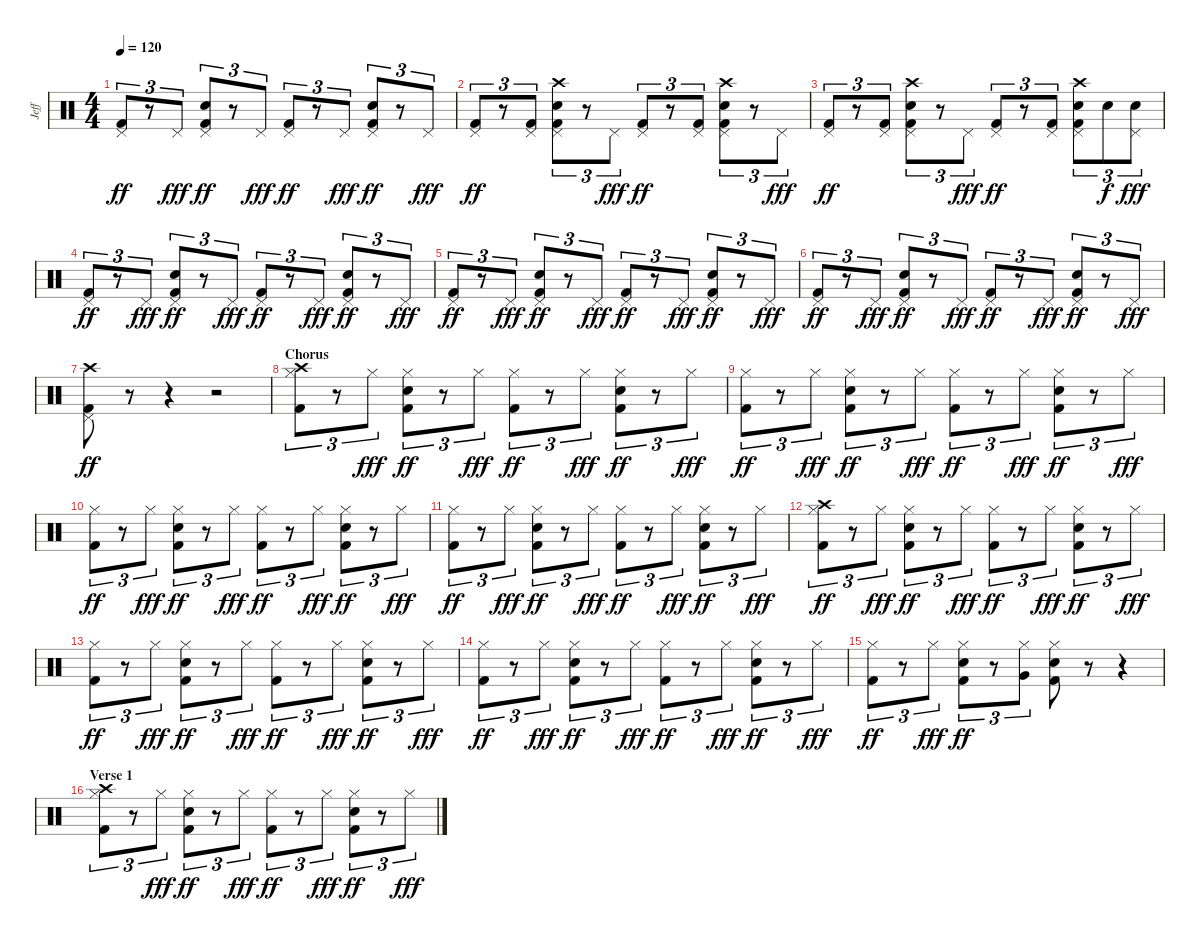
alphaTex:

\track ("Jeff" "Jeff") {instrument percussion}
\staff {score}
\articulation defaults
\ts (4 4)
\tempo 120
\clef neutral
\ks c
("Pedal Hi-Hat (hit)" "Kick (hit) 2").8{tu (3 2) dy ff} r.8{tu (3 2)} "Pedal Hi-Hat (hit)".8{tu (3 2) dy fff} ("Pedal Hi-Hat (hit)" "Snare (hit) 2" "Kick (hit) 2").8{tu (3 2) dy ff} r.8{tu (3 2)} "Pedal Hi-Hat (hit)".8{tu (3 2) dy fff} ("Pedal Hi-Hat (hit)" "Kick (hit) 2").8{tu (3 2) dy ff} r.8{tu (3 2)} "Pedal Hi-Hat (hit)".8{tu (3 2) dy fff} ("Pedal Hi-Hat (hit)" "Snare (hit) 2" "Kick (hit) 2").8{tu (3 2) dy ff} r.8{tu (3 2)} "Pedal Hi-Hat (hit)".8{tu (3 2) dy fff} |
("Pedal Hi-Hat (hit)" "Kick (hit) 2").8{tu (3 2) dy ff} r.8{tu (3 2)} ("Pedal Hi-Hat (hit)" "Kick (hit) 2").8{tu (3 2)} ("Crash high (hit)" "Pedal Hi-Hat (hit)" "Snare (hit) 2" "Kick (hit) 2").8{tu (3 2)} r.8{tu (3 2)} "Pedal Hi-Hat (hit)".8{tu (3 2) dy fff} ("Pedal Hi-Hat (hit)" "Kick (hit) 2").8{tu (3 2) dy ff} r.8{tu (3 2)} ("Pedal Hi-Hat (hit)" "Kick (hit) 2").8{tu (3 2)} ("Crash high (hit)" "Pedal Hi-Hat (hit)" "Snare (hit) 2" "Kick (hit) 2").8{tu (3 2)} r.8{tu (3 2)} "Pedal Hi-Hat (hit)".8{tu (3 2) dy fff} |
("Pedal Hi-Hat (hit)" "Kick (hit) 2").8{tu (3 2) dy ff} r.8{tu (3 2)} ("Pedal Hi-Hat (hit)" "Kick (hit) 2").8{tu (3 2)} ("Crash high (hit)" "Pedal Hi-Hat (hit)" "Snare (hit) 2" "Kick (hit) 2").8{tu (3 2)} r.8{tu (3 2)} "Pedal Hi-Hat (hit)".8{tu (3 2) dy fff} ("Pedal Hi-Hat (hit)" "Kick (hit) 2").8{tu (3 2) dy ff} r.8{tu (3 2)} ("Pedal Hi-Hat (hit)" "Kick (hit) 2").8{tu (3 2)} ("Crash high (hit)" "Pedal Hi-Hat (hit)" "Snare (hit) 2" "Kick (hit) 2").8{tu (3 2)} "Snare (hit) 2".8{tu (3 2) dy f} ("Pedal Hi-Hat (hit)" "Snare (hit) 2").8{tu (3 2) dy fff} |
("Pedal Hi-Hat (hit)" "Kick (hit) 2").8{tu (3 2) dy ff} r.8{tu (3 2)} "Pedal Hi-Hat (hit)".8{tu (3 2) dy fff} ("Pedal Hi-Hat (hit)" "Snare (hit) 2" "Kick (hit) 2").8{tu (3 2) dy ff} r.8{tu (3 2)} "Pedal Hi-Hat (hit)".8{tu (3 2) dy fff} ("Pedal Hi-Hat (hit)" "Kick (hit) 2").8{tu (3 2) dy ff} r.8{tu (3 2)} "Pedal Hi-Hat (hit)".8{tu (3 2) dy fff} ("Pedal Hi-Hat (hit)" "Snare (hit) 2" "Kick (hit) 2").8{tu (3 2) dy ff} r.8{tu (3 2)} "Pedal Hi-Hat (hit)".8{tu (3 2) dy fff} |
("Pedal Hi-Hat (hit)" "Kick (hit) 2").8{tu (3 2) dy ff} r.8{tu (3 2)} "Pedal Hi-Hat (hit)".8{tu (3 2) dy fff} ("Pedal Hi-Hat (hit)" "Snare (hit) 2" "Kick (hit) 2").8{tu (3 2) dy ff} r.8{tu (3 2)} "Pedal Hi-Hat (hit)".8{tu (3 2) dy fff} ("Pedal Hi-Hat (hit)" "Kick (hit) 2").8{tu (3 2) dy ff} r.8{tu (3 2)} "Pedal Hi-Hat (hit)".8{tu (3 2) dy fff} ("Pedal Hi-Hat (hit)" "Snare (hit) 2" "Kick (hit) 2").8{tu (3 2) dy ff} r.8{tu (3 2)} "Pedal Hi-Hat (hit)".8{tu (3 2) dy fff} |
("Pedal Hi-Hat (hit)" "Kick (hit) 2").8{tu (3 2) dy ff} r.8{tu (3 2)} "Pedal Hi-Hat (hit)".8{tu (3 2) dy fff} ("Pedal Hi-Hat (hit)" "Snare (hit) 2" "Kick (hit) 2").8{tu (3 2) dy ff} r.8{tu (3 2)} "Pedal Hi-Hat (hit)".8{tu (3 2) dy fff} ("Pedal Hi-Hat (hit)" "Kick (hit) 2").8{tu (3 2) dy ff} r.8{tu (3 2)} "Pedal Hi-Hat (hit)".8{tu (3 2) dy fff} ("Pedal Hi-Hat (hit)" "Snare (hit) 2" "Kick (hit) 2").8{tu (3 2) dy ff} r.8{tu (3 2)} "Pedal Hi-Hat (hit)".8{tu (3 2) dy fff} |
("Crash high (hit)" "Pedal Hi-Hat (hit)" "Kick (hit) 2").8{dy ff} r.8 r.4 r.2 |
\section ("" "Chorus")
("Crash high (hit)" "Hi-Hat (closed)" "Kick (hit) 2").8{tu (3 2)} r.8{tu (3 2)} "Hi-Hat (closed)".8{tu (3 2) dy fff} ("Hi-Hat (closed)" "Snare (hit) 2" "Kick (hit) 2").8{tu (3 2) dy ff} r.8{tu (3 2)} "Hi-Hat (closed)".8{tu (3 2) dy fff} ("Hi-Hat (closed)" "Kick (hit) 2").8{tu (3 2) dy ff} r.8{tu (3 2)} "Hi-Hat (closed)".8{tu (3 2) dy fff} ("Hi-Hat (closed)" "Snare (hit) 2" "Kick (hit) 2").8{tu (3 2) dy ff} r.8{tu (3 2)} "Hi-Hat (closed)".8{tu (3 2) dy fff} |
("Hi-Hat (closed)" "Kick (hit) 2").8{tu (3 2) dy ff} r.8{tu (3 2)} "Hi-Hat (closed)".8{tu (3 2) dy fff} ("Hi-Hat (closed)" "Snare (hit) 2" "Kick (hit) 2").8{tu (3 2) dy ff} r.8{tu (3 2)} "Hi-Hat (closed)".8{tu (3 2) dy fff} ("Hi-Hat (closed)" "Kick (hit) 2").8{tu (3 2) dy ff} r.8{tu (3 2)} "Hi-Hat (closed)".8{tu (3 2) dy fff} ("Hi-Hat (closed)" "Snare (hit) 2" "Kick (hit) 2").8{tu (3 2) dy ff} r.8{tu (3 2)} "Hi-Hat (closed)".8{tu (3 2) dy fff} |
("Hi-Hat (closed)" "Kick (hit) 2").8{tu (3 2) dy ff} r.8{tu (3 2)} "Hi-Hat (closed)".8{tu (3 2) dy fff} ("Hi-Hat (closed)" "Snare (hit) 2" "Kick (hit) 2").8{tu (3 2) dy ff} r.8{tu (3 2)} "Hi-Hat (closed)".8{tu (3 2) dy fff} ("Hi-Hat (closed)" "Kick (hit) 2").8{tu (3 2) dy ff} r.8{tu (3 2)} "Hi-Hat (closed)".8{tu (3 2) dy fff} ("Hi-Hat (closed)" "Snare (hit) 2" "Kick (hit) 2").8{tu (3 2) dy ff} r.8{tu (3 2)} "Hi-Hat (closed)".8{tu (3 2) dy fff} |
("Hi-Hat (closed)" "Kick (hit) 2").8{tu (3 2) dy ff} r.8{tu (3 2)} "Hi-Hat (closed)".8{tu (3 2) dy fff} ("Hi-Hat (closed)" "Snare (hit) 2" "Kick (hit) 2").8{tu (3 2) dy ff} r.8{tu (3 2)} "Hi-Hat (closed)".8{tu (3 2) dy fff} ("Hi-Hat (closed)" "Kick (hit) 2").8{tu (3 2) dy ff} r.8{tu (3 2)} "Hi-Hat (closed)".8{tu (3 2) dy fff} ("Hi-Hat (closed)" "Snare (hit) 2" "Kick (hit) 2").8{tu (3 2) dy ff} r.8{tu (3 2)} "Hi-Hat (closed)".8{tu (3 2) dy fff} |
("Crash high (hit)" "Hi-Hat (closed)" "Kick (hit) 2").8{tu (3 2) dy ff} r.8{tu (3 2)} "Hi-Hat (closed)".8{tu (3 2) dy fff} ("Hi-Hat (closed)" "Snare (hit) 2" "Kick (hit) 2").8{tu (3 2) dy ff} r.8{tu (3 2)} "Hi-Hat (closed)".8{tu (3 2) dy fff} ("Hi-Hat (closed)" "Kick (hit) 2").8{tu (3 2) dy ff} r.8{tu (3 2)} "Hi-Hat (closed)".8{tu (3 2) dy fff} ("Hi-Hat (closed)" "Snare (hit) 2" "Kick (hit) 2").8{tu (3 2) dy ff} r.8{tu (3 2)} "Hi-Hat (closed)".8{tu (3 2) dy fff} |
("Hi-Hat (closed)" "Kick (hit) 2").8{tu (3 2) dy ff} r.8{tu (3 2)} "Hi-Hat (closed)".8{tu (3 2) dy fff} ("Hi-Hat (closed)" "Snare (hit) 2" "Kick (hit) 2").8{tu (3 2) dy ff} r.8{tu (3 2)} "Hi-Hat (closed)".8{tu (3 2) dy fff} ("Hi-Hat (closed)" "Kick (hit) 2").8{tu (3 2) dy ff} r.8{tu (3 2)} "Hi-Hat (closed)".8{tu (3 2) dy fff} ("Hi-Hat (closed)" "Snare (hit) 2" "Kick (hit) 2").8{tu (3 2) dy ff} r.8{tu (3 2)} "Hi-Hat (closed)".8{tu (3 2) dy fff} |
("Hi-Hat (closed)" "Kick (hit) 2").8{tu (3 2) dy ff} r.8{tu (3 2)} "Hi-Hat (closed)".8{tu (3 2) dy fff} ("Hi-Hat (closed)" "Snare (hit) 2" "Kick (hit) 2").8{tu (3 2) dy ff} r.8{tu (3 2)} "Hi-Hat (closed)".8{tu (3 2) dy fff} ("Hi-Hat (closed)" "Kick (hit) 2").8{tu (3 2) dy ff} r.8{tu (3 2)} "Hi-Hat (closed)".8{tu (3 2) dy fff} ("Hi-Hat (closed)" "Snare (hit) 2" "Kick (hit) 2").8{tu (3 2) dy ff} r.8{tu (3 2)} "Hi-Hat (closed)".8{tu (3 2) dy fff} |
("Hi-Hat (closed)" "Kick (hit) 2").8{tu (3 2) dy ff} r.8{tu (3 2)} "Hi-Hat (closed)".8{tu (3 2) dy fff} ("Hi-Hat (closed)" "Snare (hit) 2" "Kick (hit) 2").8{tu (3 2) dy ff} r.8{tu (3 2)} ("Hi-Hat (closed)" "Very Low Tom (hit)").8{tu (3 2)} ("Hi-Hat (closed)" "Snare (hit) 2" "Kick (hit) 2").8 r.8 r.4 |
\section ("" "Verse 1")
("Crash high (hit)" "Hi-Hat (closed)" "Kick (hit) 2").8{tu (3 2)} r.8{tu (3 2)} "Hi-Hat (closed)".8{tu (3 2) dy fff} ("Hi-Hat (closed)" "Snare (hit) 2" "Kick (hit) 2").8{tu (3 2) dy ff} r.8{tu (3 2)} "Hi-Hat (closed)".8{tu (3 2) dy fff} ("Hi-Hat (closed)" "Kick (hit) 2").8{tu (3 2) dy ff} r.8{tu (3 2)} "Hi-Hat (closed)".8{tu (3 2) dy fff} ("Hi-Hat (closed)" "Snare (hit) 2" "Kick (hit) 2").8{tu (3 2) dy ff} r.8{tu (3 2)} "Hi-Hat (closed)".8{tu (3 2) dy fff}
